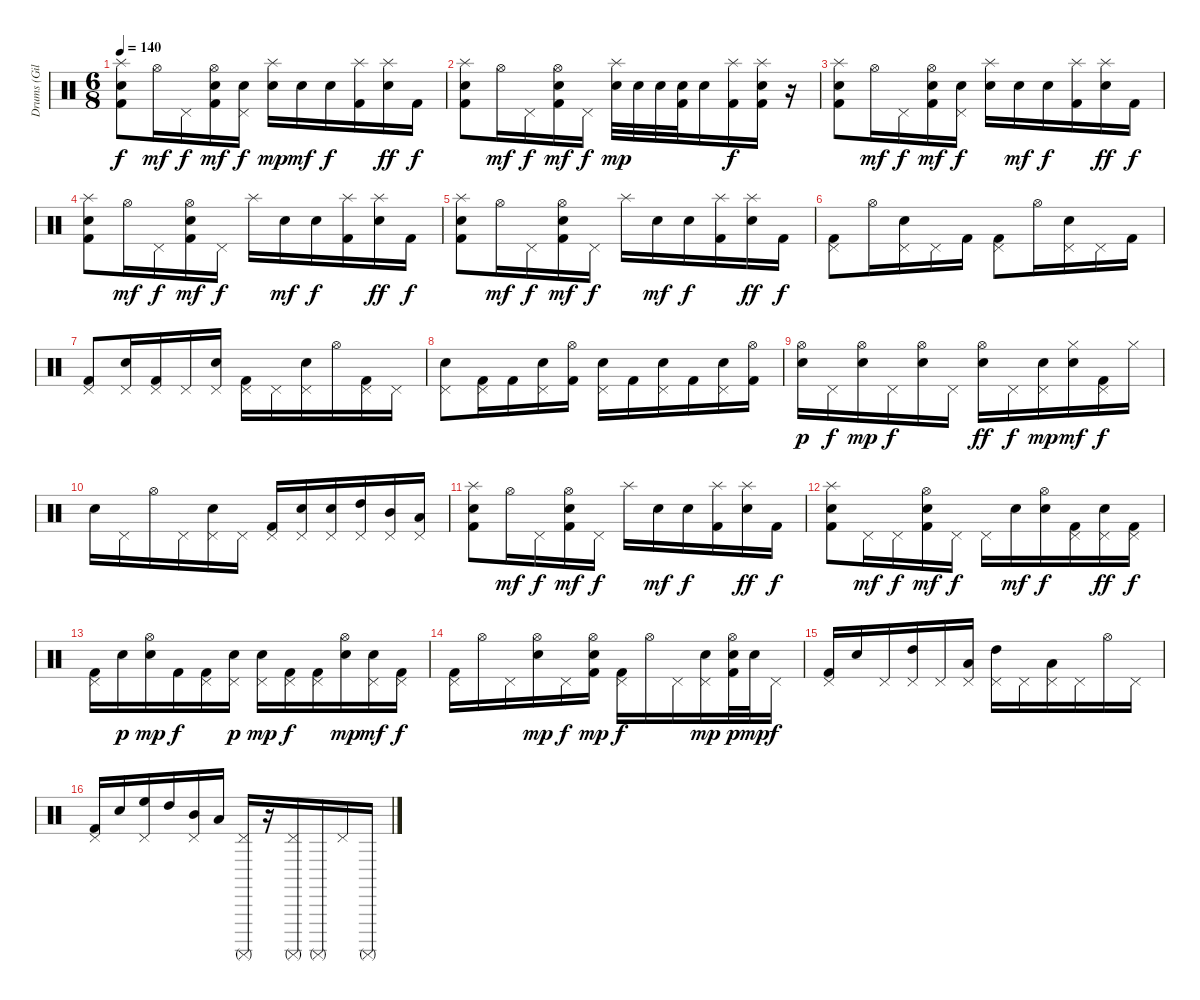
\track ("Drums (Giles)" "Drums (Gil") {instrument percussion}
\staff {score}
\articulation defaults
\ts (6 8)
\tempo 140
\clef neutral
\ks c
("Splash (hit)" "Electric Snare (hit)" "Kick (hit) 2").8{dy f} "Hi-Hat (open)".16{dy mf} "Pedal Hi-Hat (hit)".16{dy f} ("Hi-Hat (open)" "Electric Snare (hit)" "Kick (hit) 2").16{dy mf} ("Pedal Hi-Hat (hit)" "Electric Snare (hit)").16{dy f} ("Splash (hit)" "Electric Snare (hit)").16{dy mp} "Electric Snare (hit)".16{dy mf} "Electric Snare (hit)".16{dy f} ("Splash (hit)" "Kick (hit) 2").16 ("Splash (hit)" "Electric Snare (hit)").16{dy ff} "Kick (hit) 2".16{dy f} |
("Splash (hit)" "Electric Snare (hit)" "Kick (hit) 2").8 "Hi-Hat (open)".16{dy mf} "Pedal Hi-Hat (hit)".16{dy f} ("Hi-Hat (open)" "Electric Snare (hit)" "Kick (hit) 2").16{dy mf} "Pedal Hi-Hat (hit)".16{dy f} ("Splash (hit)" "Electric Snare (hit)").32{dy mp} "Electric Snare (hit)".32 "Electric Snare (hit)".32 ("Electric Snare (hit)" "Kick (hit) 2").32 "Electric Snare (hit)".16 ("Splash (hit)" "Kick (hit) 2").16{dy f} ("Splash (hit)" "Electric Snare (hit)" "Kick (hit) 2").16 r.16 |
("Splash (hit)" "Electric Snare (hit)" "Kick (hit) 2").8 "Hi-Hat (open)".16{dy mf} "Pedal Hi-Hat (hit)".16{dy f} ("Hi-Hat (open)" "Electric Snare (hit)" "Kick (hit) 2").16{dy mf} ("Pedal Hi-Hat (hit)" "Electric Snare (hit)").16{dy f} ("Splash (hit)" "Electric Snare (hit)").16 "Electric Snare (hit)".16{dy mf} "Electric Snare (hit)".16{dy f} ("Splash (hit)" "Kick (hit) 2").16 ("Splash (hit)" "Electric Snare (hit)").16{dy ff} "Kick (hit) 2".16{dy f} |
("Splash (hit)" "Electric Snare (hit)" "Kick (hit) 2").8 "Hi-Hat (open)".16{dy mf} "Pedal Hi-Hat (hit)".16{dy f} ("Hi-Hat (open)" "Electric Snare (hit)" "Kick (hit) 2").16{dy mf} "Pedal Hi-Hat (hit)".16{dy f} "Splash (hit)".16 "Electric Snare (hit)".16{dy mf} "Electric Snare (hit)".16{dy f} ("Splash (hit)" "Kick (hit) 2").16 ("Splash (hit)" "Electric Snare (hit)").16{dy ff} "Kick (hit) 2".16{dy f} |
("Splash (hit)" "Electric Snare (hit)" "Kick (hit) 2").8 "Hi-Hat (open)".16{dy mf} "Pedal Hi-Hat (hit)".16{dy f} ("Hi-Hat (open)" "Electric Snare (hit)" "Kick (hit) 2").16{dy mf} "Pedal Hi-Hat (hit)".16{dy f} "Splash (hit)".16 "Electric Snare (hit)".16{dy mf} "Electric Snare (hit)".16{dy f} ("Splash (hit)" "Kick (hit) 2").16 ("Splash (hit)" "Electric Snare (hit)").16{dy ff} "Kick (hit) 2".16{dy f} |
("Pedal Hi-Hat (hit)" "Kick (hit) 2").8 "Hi-Hat (open)".16 ("Pedal Hi-Hat (hit)" "Electric Snare (hit)").16 "Pedal Hi-Hat (hit)".16 "Kick (hit) 2".16 ("Pedal Hi-Hat (hit)" "Kick (hit) 2").8 "Hi-Hat (open)".16 ("Pedal Hi-Hat (hit)" "Electric Snare (hit)").16 "Pedal Hi-Hat (hit)".16 "Kick (hit) 2".16 |
("Pedal Hi-Hat (hit)" "Kick (hit) 2").8 ("Pedal Hi-Hat (hit)" "Electric Snare (hit)").16 ("Pedal Hi-Hat (hit)" "Kick (hit) 2").16 "Pedal Hi-Hat (hit)".16 ("Pedal Hi-Hat (hit)" "Electric Snare (hit)").16 ("Pedal Hi-Hat (hit)" "Kick (hit) 2").16 "Pedal Hi-Hat (hit)".16 ("Pedal Hi-Hat (hit)" "Electric Snare (hit)").16 "Hi-Hat (open)".16 ("Pedal Hi-Hat (hit)" "Kick (hit) 2").16 "Pedal Hi-Hat (hit)".16 |
("Pedal Hi-Hat (hit)" "Electric Snare (hit)").8 ("Pedal Hi-Hat (hit)" "Kick (hit) 2").16 "Kick (hit) 2".16 ("Pedal Hi-Hat (hit)" "Electric Snare (hit)").16 ("Hi-Hat (open)" "Kick (hit) 2").16 ("Pedal Hi-Hat (hit)" "Electric Snare (hit)").16 "Kick (hit) 2".16 ("Pedal Hi-Hat (hit)" "Electric Snare (hit)").16 "Kick (hit) 2".16 ("Pedal Hi-Hat (hit)" "Electric Snare (hit)").16 ("Hi-Hat (open)" "Kick (hit) 2").16 |
("Hi-Hat (open)" "Electric Snare (hit)").16{dy p} "Pedal Hi-Hat (hit)".16{dy f} ("Hi-Hat (open)" "Electric Snare (hit)").16{dy mp} "Pedal Hi-Hat (hit)".16{dy f} ("Hi-Hat (open)" "Electric Snare (hit)").16 "Pedal Hi-Hat (hit)".16 ("Hi-Hat (open)" "Electric Snare (hit)").16{dy ff} "Pedal Hi-Hat (hit)".16{dy f} ("Pedal Hi-Hat (hit)" "Electric Snare (hit)").16{dy mp} ("Hi-Hat (closed)" "Electric Snare (hit)").16{dy mf} ("Pedal Hi-Hat (hit)" "Kick (hit) 2").16{dy f} "Hi-Hat (closed)".16 |
"Electric Snare (hit)".16 "Pedal Hi-Hat (hit)".16 "Hi-Hat (open)".16 "Pedal Hi-Hat (hit)".16 ("Pedal Hi-Hat (hit)" "Electric Snare (hit)").16 "Pedal Hi-Hat (hit)".16 ("Pedal Hi-Hat (hit)" "Kick (hit) 2").16 ("Pedal Hi-Hat (hit)" "Electric Snare (hit)").16 ("Pedal Hi-Hat (hit)" "Electric Snare (hit)").16 ("Pedal Hi-Hat (hit)" "High Tom (hit)").16 ("Pedal Hi-Hat (hit)" "Mid Tom (hit)").16 ("Pedal Hi-Hat (hit)" "Low Tom (hit)").16 |
("Splash (hit)" "Electric Snare (hit)" "Kick (hit) 2").8 "Hi-Hat (open)".16{dy mf} "Pedal Hi-Hat (hit)".16{dy f} ("Hi-Hat (open)" "Electric Snare (hit)" "Kick (hit) 2").16{dy mf} "Pedal Hi-Hat (hit)".16{dy f} "Splash (hit)".16 "Electric Snare (hit)".16{dy mf} "Electric Snare (hit)".16{dy f} ("Splash (hit)" "Kick (hit) 2").16 ("Splash (hit)" "Electric Snare (hit)").16{dy ff} "Kick (hit) 2".16{dy f} |
("Splash (hit)" "Electric Snare (hit)" "Kick (hit) 2").8 "Pedal Hi-Hat (hit)".16{dy mf} "Pedal Hi-Hat (hit)".16{dy f} ("Hi-Hat (open)" "Electric Snare (hit)" "Kick (hit) 2").16{dy mf} "Pedal Hi-Hat (hit)".16{dy f} "Pedal Hi-Hat (hit)".16 "Electric Snare (hit)".16{dy mf} ("Hi-Hat (open)" "Electric Snare (hit)").16{dy f} ("Pedal Hi-Hat (hit)" "Kick (hit) 2").16 ("Pedal Hi-Hat (hit)" "Electric Snare (hit)").16{dy ff} ("Pedal Hi-Hat (hit)" "Kick (hit) 2").16{dy f} |
("Pedal Hi-Hat (hit)" "Kick (hit) 2").16 "Electric Snare (hit)".16{dy p} ("Hi-Hat (open)" "Electric Snare (hit)").16{dy mp} "Kick (hit) 2".16{dy f} ("Pedal Hi-Hat (hit)" "Kick (hit) 2").16 ("Pedal Hi-Hat (hit)" "Electric Snare (hit)").16{dy p} ("Pedal Hi-Hat (hit)" "Electric Snare (hit)").16{dy mp} ("Pedal Hi-Hat (hit)" "Kick (hit) 2").16{dy f} ("Pedal Hi-Hat (hit)" "Kick (hit) 2").16 ("Hi-Hat (open)" "Electric Snare (hit)").16{dy mp} ("Pedal Hi-Hat (hit)" "Electric Snare (hit)").16{dy mf} ("Pedal Hi-Hat (hit)" "Kick (hit) 2").16{dy f} |
("Pedal Hi-Hat (hit)" "Kick (hit) 2").16 "Hi-Hat (open)".16 "Pedal Hi-Hat (hit)".16 ("Hi-Hat (open)" "Electric Snare (hit)").16{dy mp} "Pedal Hi-Hat (hit)".16{dy f} ("Hi-Hat (open)" "Electric Snare (hit)" "Kick (hit) 2").16{dy mp} ("Pedal Hi-Hat (hit)" "Kick (hit) 2").16{dy f} "Hi-Hat (open)".16 "Pedal Hi-Hat (hit)".16 ("Pedal Hi-Hat (hit)" "Electric Snare (hit)").16{dy mp} ("Hi-Hat (open)" "Electric Snare (hit)" "Kick (hit) 2").32{dy p} "Electric Snare (hit)".32{dy mp} "Pedal Hi-Hat (hit)".16{dy f} |
("Pedal Hi-Hat (hit)" "Kick (hit) 2").16 "Electric Snare (hit)".16 "Pedal Hi-Hat (hit)".16 ("Pedal Hi-Hat (hit)" "High Tom (hit)").16 "Pedal Hi-Hat (hit)".16 ("Pedal Hi-Hat (hit)" "Low Tom (hit)").16 ("Pedal Hi-Hat (hit)" "High Tom (hit)").16 "Pedal Hi-Hat (hit)".16 ("Pedal Hi-Hat (hit)" "Low Tom (hit)").16 "Pedal Hi-Hat (hit)".16 "Hi-Hat (open)".16 "Pedal Hi-Hat (hit)".16 |
("Pedal Hi-Hat (hit)" "Kick (hit) 2").16 "Electric Snare (hit)".16 ("Pedal Hi-Hat (hit)" "High Floor Tom (hit)").16 "High Tom (hit)".16 ("Pedal Hi-Hat (hit)" "Mid Tom (hit)").16 "Low Tom (hit)".16 ("Pedal Hi-Hat (hit)" "Surdo (mute)").16 r.16 ("Pedal Hi-Hat (hit)" "Surdo (mute)").16 "Surdo (mute)".16 "Pedal Hi-Hat (hit)".16 "Surdo (mute)".16
